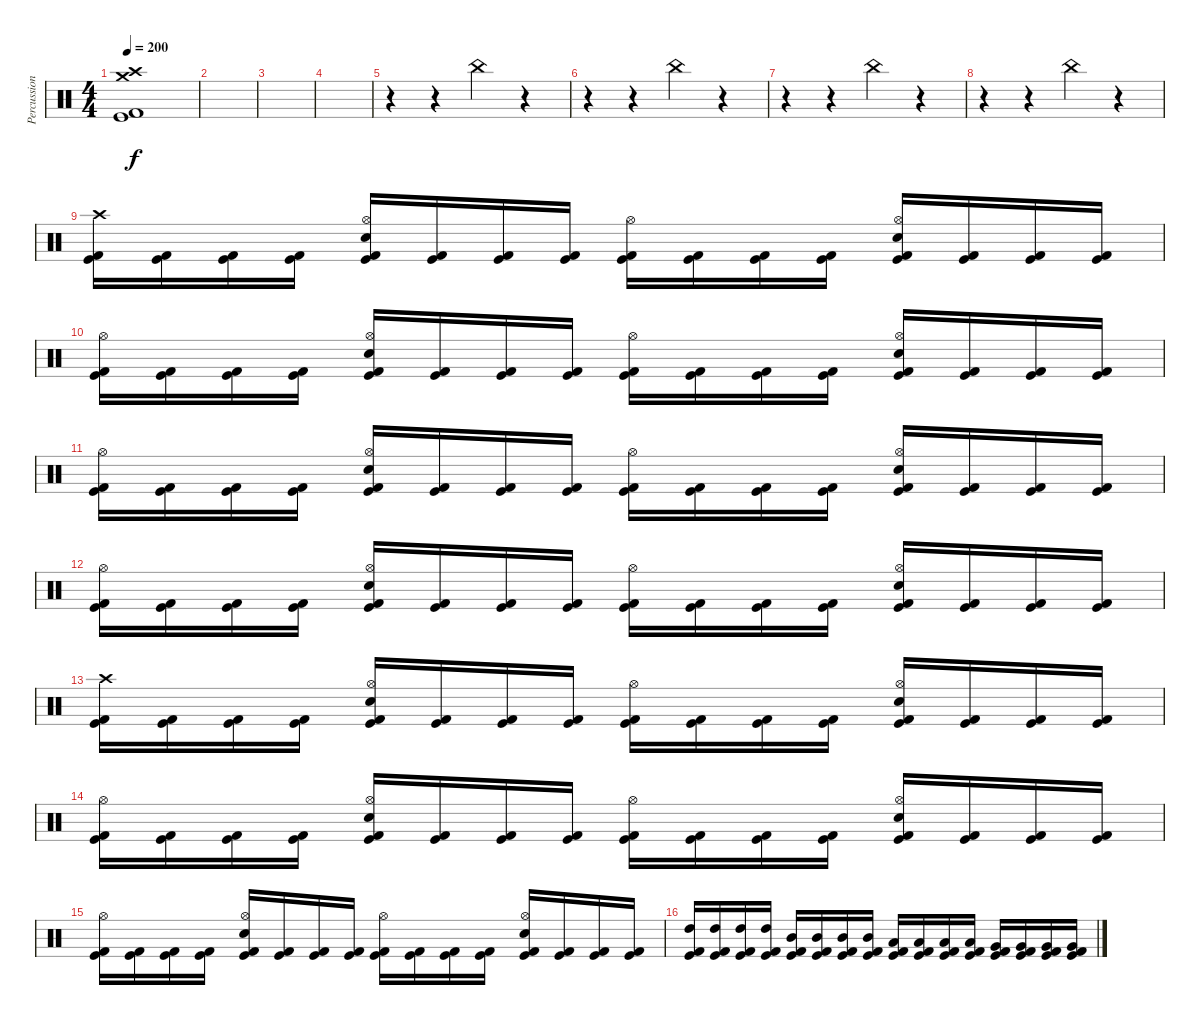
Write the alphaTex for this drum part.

\track ("Percussion" "Percussion") {instrument percussion}
\staff {score}
\articulation defaults
\ts (4 4)
\tempo 200
\clef neutral
\ks c
("Crash medium (hit)" "Crash high (hit)" "Kick (hit)" "Kick (hit) 2").1{dy f} |
|
|
|
r.4 r.4 "China (hit)".4 r.4 |
r.4 r.4 "China (hit)".4 r.4 |
r.4 r.4 "China (hit)".4 r.4 |
r.4 r.4 "China (hit)".4 r.4 |
("Crash high (hit)" "Kick (hit)" "Kick (hit) 2").16 ("Kick (hit)" "Kick (hit) 2").16 ("Kick (hit)" "Kick (hit) 2").16 ("Kick (hit)" "Kick (hit) 2").16 ("Hi-Hat (open)" "Electric Snare (hit)" "Kick (hit)" "Kick (hit) 2").16 ("Kick (hit)" "Kick (hit) 2").16 ("Kick (hit)" "Kick (hit) 2").16 ("Kick (hit)" "Kick (hit) 2").16 ("Hi-Hat (open)" "Kick (hit)" "Kick (hit) 2").16 ("Kick (hit)" "Kick (hit) 2").16 ("Kick (hit)" "Kick (hit) 2").16 ("Kick (hit)" "Kick (hit) 2").16 ("Hi-Hat (open)" "Electric Snare (hit)" "Kick (hit)" "Kick (hit) 2").16 ("Kick (hit)" "Kick (hit) 2").16 ("Kick (hit)" "Kick (hit) 2").16 ("Kick (hit)" "Kick (hit) 2").16 |
("Hi-Hat (open)" "Kick (hit)" "Kick (hit) 2").16 ("Kick (hit)" "Kick (hit) 2").16 ("Kick (hit)" "Kick (hit) 2").16 ("Kick (hit)" "Kick (hit) 2").16 ("Hi-Hat (open)" "Electric Snare (hit)" "Kick (hit)" "Kick (hit) 2").16 ("Kick (hit)" "Kick (hit) 2").16 ("Kick (hit)" "Kick (hit) 2").16 ("Kick (hit)" "Kick (hit) 2").16 ("Hi-Hat (open)" "Kick (hit)" "Kick (hit) 2").16 ("Kick (hit)" "Kick (hit) 2").16 ("Kick (hit)" "Kick (hit) 2").16 ("Kick (hit)" "Kick (hit) 2").16 ("Hi-Hat (open)" "Electric Snare (hit)" "Kick (hit)" "Kick (hit) 2").16 ("Kick (hit)" "Kick (hit) 2").16 ("Kick (hit)" "Kick (hit) 2").16 ("Kick (hit)" "Kick (hit) 2").16 |
("Hi-Hat (open)" "Kick (hit)" "Kick (hit) 2").16 ("Kick (hit)" "Kick (hit) 2").16 ("Kick (hit)" "Kick (hit) 2").16 ("Kick (hit)" "Kick (hit) 2").16 ("Hi-Hat (open)" "Electric Snare (hit)" "Kick (hit)" "Kick (hit) 2").16 ("Kick (hit)" "Kick (hit) 2").16 ("Kick (hit)" "Kick (hit) 2").16 ("Kick (hit)" "Kick (hit) 2").16 ("Hi-Hat (open)" "Kick (hit)" "Kick (hit) 2").16 ("Kick (hit)" "Kick (hit) 2").16 ("Kick (hit)" "Kick (hit) 2").16 ("Kick (hit)" "Kick (hit) 2").16 ("Hi-Hat (open)" "Electric Snare (hit)" "Kick (hit)" "Kick (hit) 2").16 ("Kick (hit)" "Kick (hit) 2").16 ("Kick (hit)" "Kick (hit) 2").16 ("Kick (hit)" "Kick (hit) 2").16 |
("Hi-Hat (open)" "Kick (hit)" "Kick (hit) 2").16 ("Kick (hit)" "Kick (hit) 2").16 ("Kick (hit)" "Kick (hit) 2").16 ("Kick (hit)" "Kick (hit) 2").16 ("Hi-Hat (open)" "Electric Snare (hit)" "Kick (hit)" "Kick (hit) 2").16 ("Kick (hit)" "Kick (hit) 2").16 ("Kick (hit)" "Kick (hit) 2").16 ("Kick (hit)" "Kick (hit) 2").16 ("Hi-Hat (open)" "Kick (hit)" "Kick (hit) 2").16 ("Kick (hit)" "Kick (hit) 2").16 ("Kick (hit)" "Kick (hit) 2").16 ("Kick (hit)" "Kick (hit) 2").16 ("Hi-Hat (open)" "Electric Snare (hit)" "Kick (hit)" "Kick (hit) 2").16 ("Kick (hit)" "Kick (hit) 2").16 ("Kick (hit)" "Kick (hit) 2").16 ("Kick (hit)" "Kick (hit) 2").16 |
("Crash high (hit)" "Kick (hit)" "Kick (hit) 2").16 ("Kick (hit)" "Kick (hit) 2").16 ("Kick (hit)" "Kick (hit) 2").16 ("Kick (hit)" "Kick (hit) 2").16 ("Hi-Hat (open)" "Electric Snare (hit)" "Kick (hit)" "Kick (hit) 2").16 ("Kick (hit)" "Kick (hit) 2").16 ("Kick (hit)" "Kick (hit) 2").16 ("Kick (hit)" "Kick (hit) 2").16 ("Hi-Hat (open)" "Kick (hit)" "Kick (hit) 2").16 ("Kick (hit)" "Kick (hit) 2").16 ("Kick (hit)" "Kick (hit) 2").16 ("Kick (hit)" "Kick (hit) 2").16 ("Hi-Hat (open)" "Electric Snare (hit)" "Kick (hit)" "Kick (hit) 2").16 ("Kick (hit)" "Kick (hit) 2").16 ("Kick (hit)" "Kick (hit) 2").16 ("Kick (hit)" "Kick (hit) 2").16 |
("Hi-Hat (open)" "Kick (hit)" "Kick (hit) 2").16 ("Kick (hit)" "Kick (hit) 2").16 ("Kick (hit)" "Kick (hit) 2").16 ("Kick (hit)" "Kick (hit) 2").16 ("Hi-Hat (open)" "Electric Snare (hit)" "Kick (hit)" "Kick (hit) 2").16 ("Kick (hit)" "Kick (hit) 2").16 ("Kick (hit)" "Kick (hit) 2").16 ("Kick (hit)" "Kick (hit) 2").16 ("Hi-Hat (open)" "Kick (hit)" "Kick (hit) 2").16 ("Kick (hit)" "Kick (hit) 2").16 ("Kick (hit)" "Kick (hit) 2").16 ("Kick (hit)" "Kick (hit) 2").16 ("Hi-Hat (open)" "Electric Snare (hit)" "Kick (hit)" "Kick (hit) 2").16 ("Kick (hit)" "Kick (hit) 2").16 ("Kick (hit)" "Kick (hit) 2").16 ("Kick (hit)" "Kick (hit) 2").16 |
("Hi-Hat (open)" "Kick (hit)" "Kick (hit) 2").16 ("Kick (hit)" "Kick (hit) 2").16 ("Kick (hit)" "Kick (hit) 2").16 ("Kick (hit)" "Kick (hit) 2").16 ("Hi-Hat (open)" "Electric Snare (hit)" "Kick (hit)" "Kick (hit) 2").16 ("Kick (hit)" "Kick (hit) 2").16 ("Kick (hit)" "Kick (hit) 2").16 ("Kick (hit)" "Kick (hit) 2").16 ("Hi-Hat (open)" "Kick (hit)" "Kick (hit) 2").16 ("Kick (hit)" "Kick (hit) 2").16 ("Kick (hit)" "Kick (hit) 2").16 ("Kick (hit)" "Kick (hit) 2").16 ("Hi-Hat (open)" "Electric Snare (hit)" "Kick (hit)" "Kick (hit) 2").16 ("Kick (hit)" "Kick (hit) 2").16 ("Kick (hit)" "Kick (hit) 2").16 ("Kick (hit)" "Kick (hit) 2").16 |
("High Tom (hit)" "Kick (hit)" "Kick (hit) 2").16 ("High Tom (hit)" "Kick (hit)" "Kick (hit) 2").16 ("High Tom (hit)" "Kick (hit)" "Kick (hit) 2").16 ("High Tom (hit)" "Kick (hit)" "Kick (hit) 2").16 ("Mid Tom (hit)" "Kick (hit)" "Kick (hit) 2").16 ("Mid Tom (hit)" "Kick (hit)" "Kick (hit) 2").16 ("Mid Tom (hit)" "Kick (hit)" "Kick (hit) 2").16 ("Mid Tom (hit)" "Kick (hit)" "Kick (hit) 2").16 ("Low Tom (hit)" "Kick (hit)" "Kick (hit) 2").16 ("Low Tom (hit)" "Kick (hit)" "Kick (hit) 2").16 ("Low Tom (hit)" "Kick (hit)" "Kick (hit) 2").16 ("Low Tom (hit)" "Kick (hit)" "Kick (hit) 2").16 ("Very Low Tom (hit)" "Kick (hit)" "Kick (hit) 2").16 ("Very Low Tom (hit)" "Kick (hit)" "Kick (hit) 2").16 ("Very Low Tom (hit)" "Kick (hit)" "Kick (hit) 2").16 ("Very Low Tom (hit)" "Kick (hit)" "Kick (hit) 2").16
